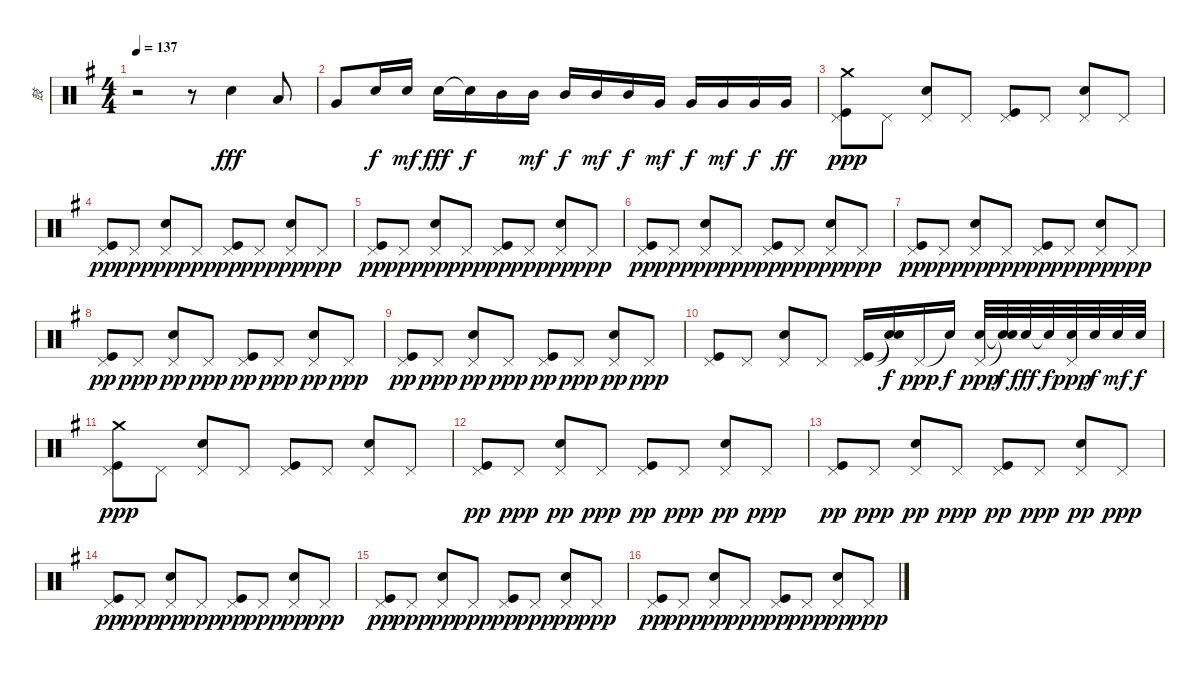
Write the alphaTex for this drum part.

\track ("鼓" "鼓") {instrument percussion}
\staff {score}
\articulation defaults
\ts (4 4)
\tempo 137
\clef neutral
\ks g
r.2{dy mp} r.8 "Snare (hit) 2".4{dy fff} "Low Tom (hit)".8 |
"Very Low Tom (hit)".8 "Snare (hit) 2".16{dy f} "Snare (hit) 2".16{dy mf} "Snare (hit) 2".16{dy fff} "Snare (hit)"{t}.16{dy f} "Mid Tom (hit)".16 "Mid Tom (hit)".16{dy mf} "Mid Tom (hit)".16{dy f} "Mid Tom (hit)".16{dy mf} "Mid Tom (hit)".16{dy f} "Very Low Tom (hit)".16{dy mf} "Very Low Tom (hit)".16{dy f} "Very Low Tom (hit)".16{dy mf} "Very Low Tom (hit)".16{dy f} "Very Low Tom (hit)".16{dy ff} |
("Crash medium (hit)" "Kick (hit)" "Pedal Hi-Hat (hit)").8{dy ppp} "Pedal Hi-Hat (hit)".8 ("Snare (hit) 2" "Pedal Hi-Hat (hit)").8 "Pedal Hi-Hat (hit)".8 ("Kick (hit)" "Pedal Hi-Hat (hit)").8 "Pedal Hi-Hat (hit)".8 ("Snare (hit) 2" "Pedal Hi-Hat (hit)").8 "Pedal Hi-Hat (hit)".8 |
("Kick (hit)" "Pedal Hi-Hat (hit)").8{dy pp} "Pedal Hi-Hat (hit)".8{dy ppp} ("Snare (hit) 2" "Pedal Hi-Hat (hit)").8{dy pp} "Pedal Hi-Hat (hit)".8{dy ppp} ("Kick (hit)" "Pedal Hi-Hat (hit)").8{dy pp} "Pedal Hi-Hat (hit)".8{dy ppp} ("Snare (hit) 2" "Pedal Hi-Hat (hit)").8{dy pp} "Pedal Hi-Hat (hit)".8{dy ppp} |
("Kick (hit)" "Pedal Hi-Hat (hit)").8{dy pp} "Pedal Hi-Hat (hit)".8{dy ppp} ("Snare (hit) 2" "Pedal Hi-Hat (hit)").8{dy pp} "Pedal Hi-Hat (hit)".8{dy ppp} ("Kick (hit)" "Pedal Hi-Hat (hit)").8{dy pp} "Pedal Hi-Hat (hit)".8{dy ppp} ("Snare (hit) 2" "Pedal Hi-Hat (hit)").8{dy pp} "Pedal Hi-Hat (hit)".8{dy ppp} |
("Kick (hit)" "Pedal Hi-Hat (hit)").8{dy pp} "Pedal Hi-Hat (hit)".8{dy ppp} ("Snare (hit) 2" "Pedal Hi-Hat (hit)").8{dy pp} "Pedal Hi-Hat (hit)".8{dy ppp} ("Kick (hit)" "Pedal Hi-Hat (hit)").8{dy pp} "Pedal Hi-Hat (hit)".8{dy ppp} ("Snare (hit) 2" "Pedal Hi-Hat (hit)").8{dy pp} "Pedal Hi-Hat (hit)".8{dy ppp} |
("Kick (hit)" "Pedal Hi-Hat (hit)").8{dy pp} "Pedal Hi-Hat (hit)".8{dy ppp} ("Snare (hit) 2" "Pedal Hi-Hat (hit)").8{dy pp} "Pedal Hi-Hat (hit)".8{dy ppp} ("Kick (hit)" "Pedal Hi-Hat (hit)").8{dy pp} "Pedal Hi-Hat (hit)".8{dy ppp} ("Snare (hit) 2" "Pedal Hi-Hat (hit)").8{dy pp} "Pedal Hi-Hat (hit)".8{dy ppp} |
("Kick (hit)" "Pedal Hi-Hat (hit)").8{dy pp} "Pedal Hi-Hat (hit)".8{dy ppp} ("Snare (hit) 2" "Pedal Hi-Hat (hit)").8{dy pp} "Pedal Hi-Hat (hit)".8{dy ppp} ("Kick (hit)" "Pedal Hi-Hat (hit)").8{dy pp} "Pedal Hi-Hat (hit)".8{dy ppp} ("Snare (hit) 2" "Pedal Hi-Hat (hit)").8{dy pp} "Pedal Hi-Hat (hit)".8{dy ppp} |
("Kick (hit)" "Pedal Hi-Hat (hit)").8{dy pp} "Pedal Hi-Hat (hit)".8{dy ppp} ("Snare (hit) 2" "Pedal Hi-Hat (hit)").8{dy pp} "Pedal Hi-Hat (hit)".8{dy ppp} ("Kick (hit)" "Pedal Hi-Hat (hit)").8{dy pp} "Pedal Hi-Hat (hit)".8{dy ppp} ("Snare (hit) 2" "Pedal Hi-Hat (hit)").8{dy pp} "Pedal Hi-Hat (hit)".8{dy ppp} |
("Kick (hit)" "Pedal Hi-Hat (hit)").8 "Pedal Hi-Hat (hit)".8 ("Snare (hit) 2" "Pedal Hi-Hat (hit)").8 "Pedal Hi-Hat (hit)".8 ("Kick (hit)" "Pedal Hi-Hat (hit)").16 ("Snare (hit)"{t} "Snare (hit)"{t}).16{dy f} "Pedal Hi-Hat (hit)".16{dy ppp} "Snare (hit)"{t}.16{dy f} ("Snare (hit) 2" "Pedal Hi-Hat (hit)").32{dy ppp} ("Snare (hit)"{t} "Snare (hit)"{t}).32{dy f} "Snare (hit) 2".32{dy fff} "Snare (hit)"{t}.32{dy f} ("Snare (hit) 2" "Pedal Hi-Hat (hit)").32{dy ppp} "Snare (hit) 2".32{dy f} "Snare (hit) 2".32{dy mf} "Snare (hit) 2".32{dy f} |
("Crash medium (hit)" "Kick (hit)" "Pedal Hi-Hat (hit)").8{dy ppp} "Pedal Hi-Hat (hit)".8 ("Snare (hit) 2" "Pedal Hi-Hat (hit)").8 "Pedal Hi-Hat (hit)".8 ("Kick (hit)" "Pedal Hi-Hat (hit)").8 "Pedal Hi-Hat (hit)".8 ("Snare (hit) 2" "Pedal Hi-Hat (hit)").8 "Pedal Hi-Hat (hit)".8 |
("Kick (hit)" "Pedal Hi-Hat (hit)").8{dy pp} "Pedal Hi-Hat (hit)".8{dy ppp} ("Snare (hit) 2" "Pedal Hi-Hat (hit)").8{dy pp} "Pedal Hi-Hat (hit)".8{dy ppp} ("Kick (hit)" "Pedal Hi-Hat (hit)").8{dy pp} "Pedal Hi-Hat (hit)".8{dy ppp} ("Snare (hit) 2" "Pedal Hi-Hat (hit)").8{dy pp} "Pedal Hi-Hat (hit)".8{dy ppp} |
("Kick (hit)" "Pedal Hi-Hat (hit)").8{dy pp} "Pedal Hi-Hat (hit)".8{dy ppp} ("Snare (hit) 2" "Pedal Hi-Hat (hit)").8{dy pp} "Pedal Hi-Hat (hit)".8{dy ppp} ("Kick (hit)" "Pedal Hi-Hat (hit)").8{dy pp} "Pedal Hi-Hat (hit)".8{dy ppp} ("Snare (hit) 2" "Pedal Hi-Hat (hit)").8{dy pp} "Pedal Hi-Hat (hit)".8{dy ppp} |
("Kick (hit)" "Pedal Hi-Hat (hit)").8{dy pp} "Pedal Hi-Hat (hit)".8{dy ppp} ("Snare (hit) 2" "Pedal Hi-Hat (hit)").8{dy pp} "Pedal Hi-Hat (hit)".8{dy ppp} ("Kick (hit)" "Pedal Hi-Hat (hit)").8{dy pp} "Pedal Hi-Hat (hit)".8{dy ppp} ("Snare (hit) 2" "Pedal Hi-Hat (hit)").8{dy pp} "Pedal Hi-Hat (hit)".8{dy ppp} |
("Kick (hit)" "Pedal Hi-Hat (hit)").8{dy pp} "Pedal Hi-Hat (hit)".8{dy ppp} ("Snare (hit) 2" "Pedal Hi-Hat (hit)").8{dy pp} "Pedal Hi-Hat (hit)".8{dy ppp} ("Kick (hit)" "Pedal Hi-Hat (hit)").8{dy pp} "Pedal Hi-Hat (hit)".8{dy ppp} ("Snare (hit) 2" "Pedal Hi-Hat (hit)").8{dy pp} "Pedal Hi-Hat (hit)".8{dy ppp} |
("Kick (hit)" "Pedal Hi-Hat (hit)").8{dy pp} "Pedal Hi-Hat (hit)".8{dy ppp} ("Snare (hit) 2" "Pedal Hi-Hat (hit)").8{dy pp} "Pedal Hi-Hat (hit)".8{dy ppp} ("Kick (hit)" "Pedal Hi-Hat (hit)").8{dy pp} "Pedal Hi-Hat (hit)".8{dy ppp} ("Snare (hit) 2" "Pedal Hi-Hat (hit)").8{dy pp} "Pedal Hi-Hat (hit)".8{dy ppp}
